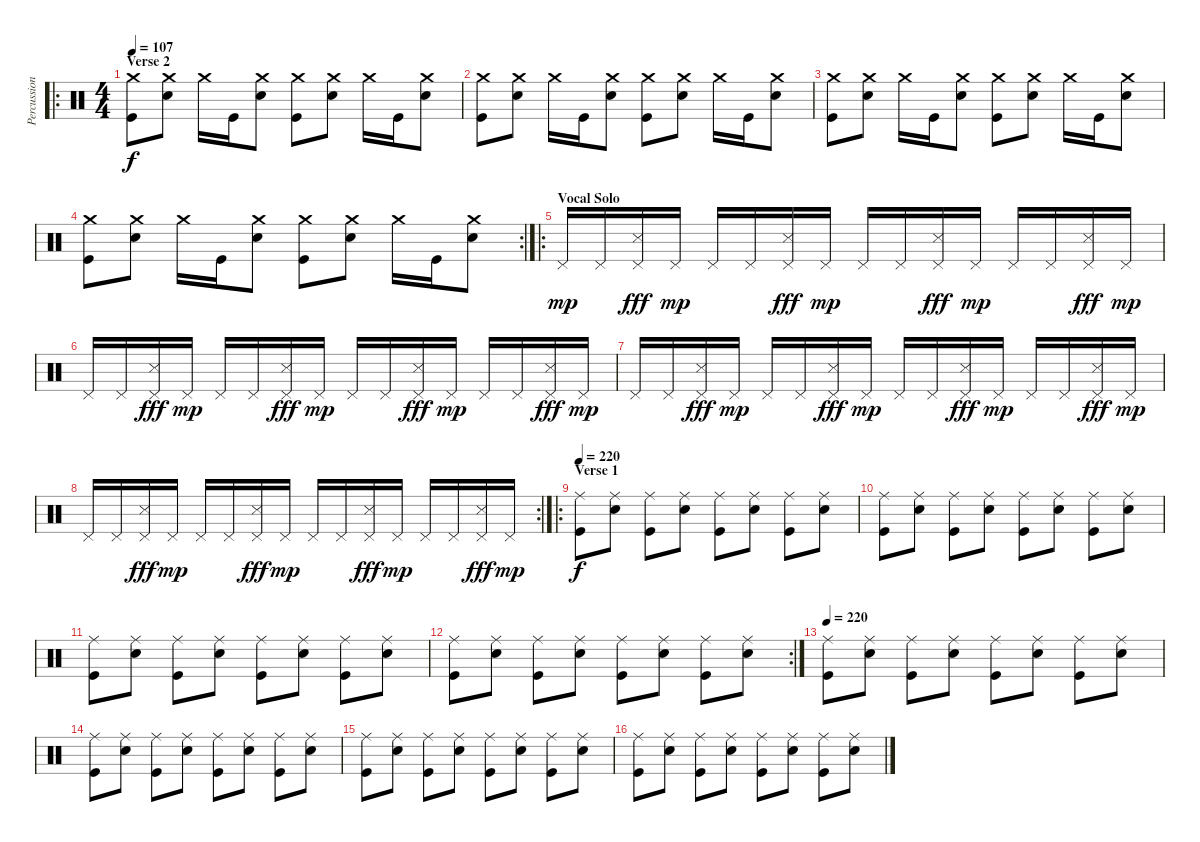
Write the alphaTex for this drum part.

\track ("Percussion" "Percussion") {instrument percussion}
\staff {score}
\articulation defaults
\ro
\ts (4 4)
\section ("" "Verse 2")
\tempo 107
\clef neutral
\ks c
("Crash medium (hit)" "Kick (hit)").8{dy f} ("Crash medium (hit)" "Electric Snare (hit)").8 "Crash medium (hit)".16 "Kick (hit)".16 ("Crash medium (hit)" "Electric Snare (hit)").8 ("Crash medium (hit)" "Kick (hit)").8 ("Crash medium (hit)" "Electric Snare (hit)").8 "Crash medium (hit)".16 "Kick (hit)".16 ("Crash medium (hit)" "Electric Snare (hit)").8 |
("Crash medium (hit)" "Kick (hit)").8 ("Crash medium (hit)" "Electric Snare (hit)").8 "Crash medium (hit)".16 "Kick (hit)".16 ("Crash medium (hit)" "Electric Snare (hit)").8 ("Crash medium (hit)" "Kick (hit)").8 ("Crash medium (hit)" "Electric Snare (hit)").8 "Crash medium (hit)".16 "Kick (hit)".16 ("Crash medium (hit)" "Electric Snare (hit)").8 |
("Crash medium (hit)" "Kick (hit)").8 ("Crash medium (hit)" "Electric Snare (hit)").8 "Crash medium (hit)".16 "Kick (hit)".16 ("Crash medium (hit)" "Electric Snare (hit)").8 ("Crash medium (hit)" "Kick (hit)").8 ("Crash medium (hit)" "Electric Snare (hit)").8 "Crash medium (hit)".16 "Kick (hit)".16 ("Crash medium (hit)" "Electric Snare (hit)").8 |
\rc 2
("Crash medium (hit)" "Kick (hit)").8 ("Crash medium (hit)" "Electric Snare (hit)").8 "Crash medium (hit)".16 "Kick (hit)".16 ("Crash medium (hit)" "Electric Snare (hit)").8 ("Crash medium (hit)" "Kick (hit)").8 ("Crash medium (hit)" "Electric Snare (hit)").8 "Crash medium (hit)".16 "Kick (hit)".16 ("Crash medium (hit)" "Electric Snare (hit)").8 |
\ro
\section ("" "Vocal Solo")
"Pedal Hi-Hat (hit)".16{dy mp} "Pedal Hi-Hat (hit)".16 ("Pedal Hi-Hat (hit)" "Snare (side stick) 3").16{dy fff} "Pedal Hi-Hat (hit)".16{dy mp} "Pedal Hi-Hat (hit)".16 "Pedal Hi-Hat (hit)".16 ("Pedal Hi-Hat (hit)" "Snare (side stick) 3").16{dy fff} "Pedal Hi-Hat (hit)".16{dy mp} "Pedal Hi-Hat (hit)".16 "Pedal Hi-Hat (hit)".16 ("Pedal Hi-Hat (hit)" "Snare (side stick) 3").16{dy fff} "Pedal Hi-Hat (hit)".16{dy mp} "Pedal Hi-Hat (hit)".16 "Pedal Hi-Hat (hit)".16 ("Pedal Hi-Hat (hit)" "Snare (side stick) 3").16{dy fff} "Pedal Hi-Hat (hit)".16{dy mp} |
"Pedal Hi-Hat (hit)".16 "Pedal Hi-Hat (hit)".16 ("Pedal Hi-Hat (hit)" "Snare (side stick) 3").16{dy fff} "Pedal Hi-Hat (hit)".16{dy mp} "Pedal Hi-Hat (hit)".16 "Pedal Hi-Hat (hit)".16 ("Pedal Hi-Hat (hit)" "Snare (side stick) 3").16{dy fff} "Pedal Hi-Hat (hit)".16{dy mp} "Pedal Hi-Hat (hit)".16 "Pedal Hi-Hat (hit)".16 ("Pedal Hi-Hat (hit)" "Snare (side stick) 3").16{dy fff} "Pedal Hi-Hat (hit)".16{dy mp} "Pedal Hi-Hat (hit)".16 "Pedal Hi-Hat (hit)".16 ("Pedal Hi-Hat (hit)" "Snare (side stick) 3").16{dy fff} "Pedal Hi-Hat (hit)".16{dy mp} |
"Pedal Hi-Hat (hit)".16 "Pedal Hi-Hat (hit)".16 ("Pedal Hi-Hat (hit)" "Snare (side stick) 3").16{dy fff} "Pedal Hi-Hat (hit)".16{dy mp} "Pedal Hi-Hat (hit)".16 "Pedal Hi-Hat (hit)".16 ("Pedal Hi-Hat (hit)" "Snare (side stick) 3").16{dy fff} "Pedal Hi-Hat (hit)".16{dy mp} "Pedal Hi-Hat (hit)".16 "Pedal Hi-Hat (hit)".16 ("Pedal Hi-Hat (hit)" "Snare (side stick) 3").16{dy fff} "Pedal Hi-Hat (hit)".16{dy mp} "Pedal Hi-Hat (hit)".16 "Pedal Hi-Hat (hit)".16 ("Pedal Hi-Hat (hit)" "Snare (side stick) 3").16{dy fff} "Pedal Hi-Hat (hit)".16{dy mp} |
\rc 2 "Pedal Hi-Hat (hit)".16 "Pedal Hi-Hat (hit)".16
("Pedal Hi-Hat (hit)" "Snare (side stick) 3").16{dy fff} "Pedal Hi-Hat (hit)".16{dy mp} "Pedal Hi-Hat (hit)".16 "Pedal Hi-Hat (hit)".16 ("Pedal Hi-Hat (hit)" "Snare (side stick) 3").16{dy fff} "Pedal Hi-Hat (hit)".16{dy mp} "Pedal Hi-Hat (hit)".16 "Pedal Hi-Hat (hit)".16 ("Pedal Hi-Hat (hit)" "Snare (side stick) 3").16{dy fff} "Pedal Hi-Hat (hit)".16{dy mp} "Pedal Hi-Hat (hit)".16 "Pedal Hi-Hat (hit)".16 ("Pedal Hi-Hat (hit)" "Snare (side stick) 3").16{dy fff} "Pedal Hi-Hat (hit)".16{dy mp} |
\ro
\section ("" "Verse 1")
\tempo 233
\tempo 220
("Ride (middle)" "Kick (hit)").8{dy f} ("Ride (middle)" "Electric Snare (hit)").8 ("Ride (middle)" "Kick (hit)").8 ("Ride (middle)" "Electric Snare (hit)").8 ("Ride (middle)" "Kick (hit)").8 ("Ride (middle)" "Electric Snare (hit)").8 ("Ride (middle)" "Kick (hit)").8 ("Ride (middle)" "Electric Snare (hit)").8 |
("Ride (middle)" "Kick (hit)").8 ("Ride (middle)" "Electric Snare (hit)").8 ("Ride (middle)" "Kick (hit)").8 ("Ride (middle)" "Electric Snare (hit)").8 ("Ride (middle)" "Kick (hit)").8 ("Ride (middle)" "Electric Snare (hit)").8 ("Ride (middle)" "Kick (hit)").8 ("Ride (middle)" "Electric Snare (hit)").8 |
("Ride (middle)" "Kick (hit)").8 ("Ride (middle)" "Electric Snare (hit)").8 ("Ride (middle)" "Kick (hit)").8 ("Ride (middle)" "Electric Snare (hit)").8 ("Ride (middle)" "Kick (hit)").8 ("Ride (middle)" "Electric Snare (hit)").8 ("Ride (middle)" "Kick (hit)").8 ("Ride (middle)" "Electric Snare (hit)").8 |
\rc 2
("Ride (middle)" "Kick (hit)").8 ("Ride (middle)" "Electric Snare (hit)").8 ("Ride (middle)" "Kick (hit)").8 ("Ride (middle)" "Electric Snare (hit)").8 ("Ride (middle)" "Kick (hit)").8 ("Ride (middle)" "Electric Snare (hit)").8 ("Ride (middle)" "Kick (hit)").8 ("Ride (middle)" "Electric Snare (hit)").8 |
\tempo 233
\tempo 220
("Ride (middle)" "Kick (hit)").8 ("Ride (middle)" "Electric Snare (hit)").8 ("Ride (middle)" "Kick (hit)").8 ("Ride (middle)" "Electric Snare (hit)").8 ("Ride (middle)" "Kick (hit)").8 ("Ride (middle)" "Electric Snare (hit)").8 ("Ride (middle)" "Kick (hit)").8 ("Ride (middle)" "Electric Snare (hit)").8 |
("Ride (middle)" "Kick (hit)").8 ("Ride (middle)" "Electric Snare (hit)").8 ("Ride (middle)" "Kick (hit)").8 ("Ride (middle)" "Electric Snare (hit)").8 ("Ride (middle)" "Kick (hit)").8 ("Ride (middle)" "Electric Snare (hit)").8 ("Ride (middle)" "Kick (hit)").8 ("Ride (middle)" "Electric Snare (hit)").8 |
("Ride (middle)" "Kick (hit)").8 ("Ride (middle)" "Electric Snare (hit)").8 ("Ride (middle)" "Kick (hit)").8 ("Ride (middle)" "Electric Snare (hit)").8 ("Ride (middle)" "Kick (hit)").8 ("Ride (middle)" "Electric Snare (hit)").8 ("Ride (middle)" "Kick (hit)").8 ("Ride (middle)" "Electric Snare (hit)").8 |
("Ride (middle)" "Kick (hit)").8 ("Ride (middle)" "Electric Snare (hit)").8 ("Ride (middle)" "Kick (hit)").8 ("Ride (middle)" "Electric Snare (hit)").8 ("Ride (middle)" "Kick (hit)").8 ("Ride (middle)" "Electric Snare (hit)").8 ("Ride (middle)" "Kick (hit)").8 ("Ride (middle)" "Electric Snare (hit)").8
